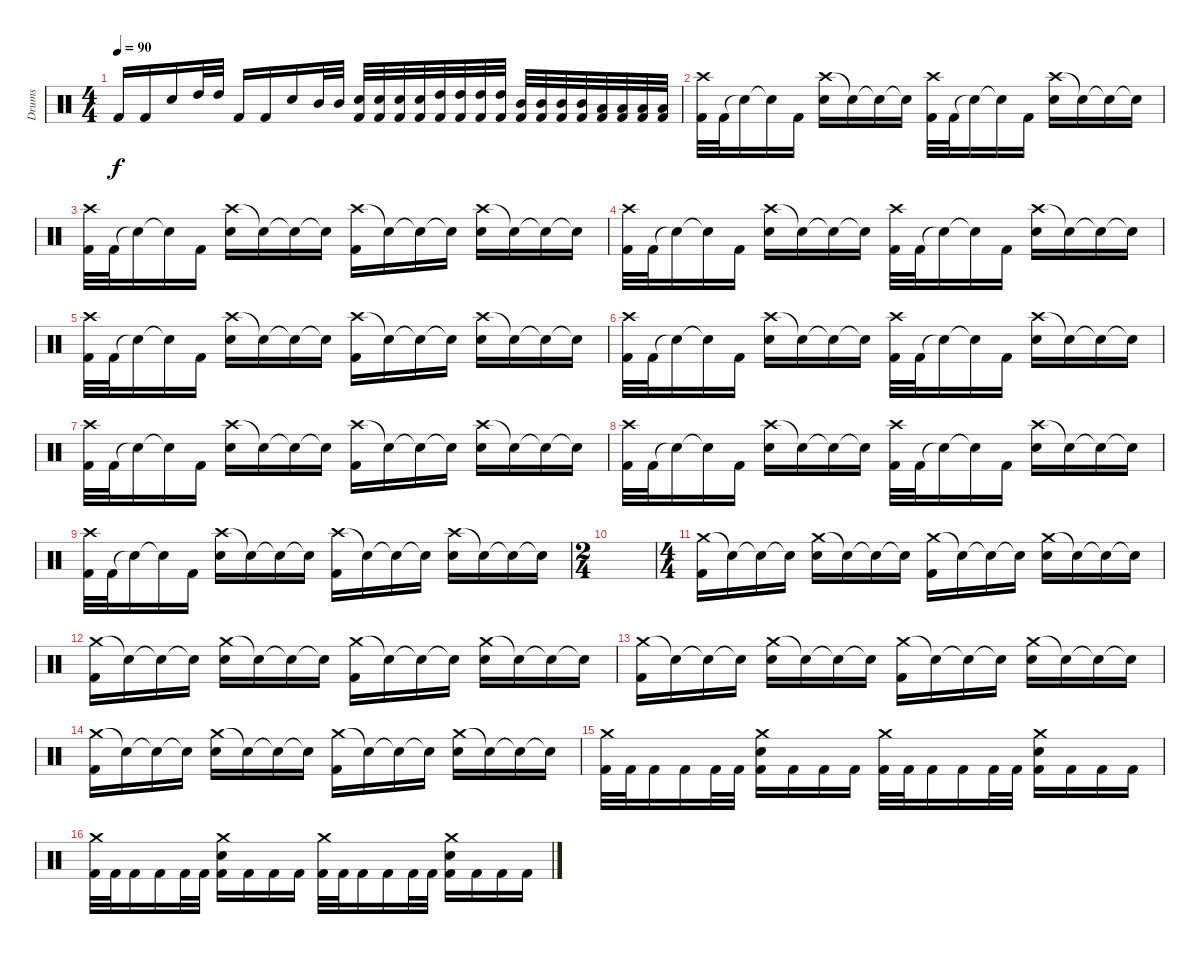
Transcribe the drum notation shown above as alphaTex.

\track ("Drums" "Drums") {instrument percussion}
\staff {score}
\articulation defaults
\ts (4 4)
\tempo 90
\clef neutral
\ks c "Kick (hit) 2".16{dy f} "Kick (hit) 2".16 "Electric Snare (hit)".16 "High Tom (hit)".32 "High Tom (hit)".32 "Kick (hit) 2".16 "Kick (hit) 2".16 "Electric Snare (hit)".16 "Mid Tom (hit)".32 "Mid Tom (hit)".32
("Electric Snare (hit)" "Kick (hit) 2").32 ("Electric Snare (hit)" "Kick (hit) 2").32 ("Electric Snare (hit)" "Kick (hit) 2").32 ("Electric Snare (hit)" "Kick (hit) 2").32 ("High Tom (hit)" "Kick (hit) 2").32 ("High Tom (hit)" "Kick (hit) 2").32 ("High Tom (hit)" "Kick (hit) 2").32 ("High Tom (hit)" "Kick (hit) 2").32 ("Mid Tom (hit)" "Kick (hit) 2").32 ("Mid Tom (hit)" "Kick (hit) 2").32 ("Mid Tom (hit)" "Kick (hit) 2").32 ("Mid Tom (hit)" "Kick (hit) 2").32 ("Low Tom (hit)" "Kick (hit) 2").32 ("Low Tom (hit)" "Kick (hit) 2").32 ("Low Tom (hit)" "Kick (hit) 2").32 ("Low Tom (hit)" "Kick (hit) 2").32 |
("Crash high (hit)" "Kick (hit) 2").32 "Kick (hit) 2".32 "Snare (hit)"{t}.16 "Snare (hit)"{t}.16 "Kick (hit) 2".16 ("Crash high (hit)" "Electric Snare (hit)").16 "Snare (hit)"{t}.16 "Snare (hit)"{t}.16 "Snare (hit)"{t}.16 ("Crash high (hit)" "Kick (hit) 2").32 "Kick (hit) 2".32 "Snare (hit)"{t}.16 "Snare (hit)"{t}.16 "Kick (hit) 2".16 ("Crash high (hit)" "Electric Snare (hit)").16 "Snare (hit)"{t}.16 "Snare (hit)"{t}.16 "Snare (hit)"{t}.16 |
("Crash high (hit)" "Kick (hit) 2").32 "Kick (hit) 2".32 "Snare (hit)"{t}.16 "Snare (hit)"{t}.16 "Kick (hit) 2".16 ("Crash high (hit)" "Electric Snare (hit)").16 "Snare (hit)"{t}.16 "Snare (hit)"{t}.16 "Snare (hit)"{t}.16 ("Crash high (hit)" "Kick (hit) 2").16 "Snare (hit)"{t}.16 "Snare (hit)"{t}.16 "Snare (hit)"{t}.16 ("Crash high (hit)" "Electric Snare (hit)").16 "Snare (hit)"{t}.16 "Snare (hit)"{t}.16 "Snare (hit)"{t}.16 |
("Crash high (hit)" "Kick (hit) 2").32 "Kick (hit) 2".32 "Snare (hit)"{t}.16 "Snare (hit)"{t}.16 "Kick (hit) 2".16 ("Crash high (hit)" "Electric Snare (hit)").16 "Snare (hit)"{t}.16 "Snare (hit)"{t}.16 "Snare (hit)"{t}.16 ("Crash high (hit)" "Kick (hit) 2").32 "Kick (hit) 2".32 "Snare (hit)"{t}.16 "Snare (hit)"{t}.16 "Kick (hit) 2".16 ("Crash high (hit)" "Electric Snare (hit)").16 "Snare (hit)"{t}.16 "Snare (hit)"{t}.16 "Snare (hit)"{t}.16 |
("Crash high (hit)" "Kick (hit) 2").32 "Kick (hit) 2".32 "Snare (hit)"{t}.16 "Snare (hit)"{t}.16 "Kick (hit) 2".16 ("Crash high (hit)" "Electric Snare (hit)").16 "Snare (hit)"{t}.16 "Snare (hit)"{t}.16 "Snare (hit)"{t}.16 ("Crash high (hit)" "Kick (hit) 2").16 "Snare (hit)"{t}.16 "Snare (hit)"{t}.16 "Snare (hit)"{t}.16 ("Crash high (hit)" "Electric Snare (hit)").16 "Snare (hit)"{t}.16 "Snare (hit)"{t}.16 "Snare (hit)"{t}.16 |
("Crash high (hit)" "Kick (hit) 2").32 "Kick (hit) 2".32 "Snare (hit)"{t}.16 "Snare (hit)"{t}.16 "Kick (hit) 2".16 ("Crash high (hit)" "Electric Snare (hit)").16 "Snare (hit)"{t}.16 "Snare (hit)"{t}.16 "Snare (hit)"{t}.16 ("Crash high (hit)" "Kick (hit) 2").32 "Kick (hit) 2".32 "Snare (hit)"{t}.16 "Snare (hit)"{t}.16 "Kick (hit) 2".16 ("Crash high (hit)" "Electric Snare (hit)").16 "Snare (hit)"{t}.16 "Snare (hit)"{t}.16 "Snare (hit)"{t}.16 |
("Crash high (hit)" "Kick (hit) 2").32 "Kick (hit) 2".32 "Snare (hit)"{t}.16 "Snare (hit)"{t}.16 "Kick (hit) 2".16 ("Crash high (hit)" "Electric Snare (hit)").16 "Snare (hit)"{t}.16 "Snare (hit)"{t}.16 "Snare (hit)"{t}.16 ("Crash high (hit)" "Kick (hit) 2").16 "Snare (hit)"{t}.16 "Snare (hit)"{t}.16 "Snare (hit)"{t}.16 ("Crash high (hit)" "Electric Snare (hit)").16 "Snare (hit)"{t}.16 "Snare (hit)"{t}.16 "Snare (hit)"{t}.16 |
("Crash high (hit)" "Kick (hit) 2").32 "Kick (hit) 2".32 "Snare (hit)"{t}.16 "Snare (hit)"{t}.16 "Kick (hit) 2".16 ("Crash high (hit)" "Electric Snare (hit)").16 "Snare (hit)"{t}.16 "Snare (hit)"{t}.16 "Snare (hit)"{t}.16 ("Crash high (hit)" "Kick (hit) 2").32 "Kick (hit) 2".32 "Snare (hit)"{t}.16 "Snare (hit)"{t}.16 "Kick (hit) 2".16 ("Crash high (hit)" "Electric Snare (hit)").16 "Snare (hit)"{t}.16 "Snare (hit)"{t}.16 "Snare (hit)"{t}.16 |
("Crash high (hit)" "Kick (hit) 2").32 "Kick (hit) 2".32 "Snare (hit)"{t}.16 "Snare (hit)"{t}.16 "Kick (hit) 2".16 ("Crash high (hit)" "Electric Snare (hit)").16 "Snare (hit)"{t}.16 "Snare (hit)"{t}.16 "Snare (hit)"{t}.16 ("Crash high (hit)" "Kick (hit) 2").16 "Snare (hit)"{t}.16 "Snare (hit)"{t}.16 "Snare (hit)"{t}.16 ("Crash high (hit)" "Electric Snare (hit)").16 "Snare (hit)"{t}.16 "Snare (hit)"{t}.16 "Snare (hit)"{t}.16 |
\ts (2 4)
|
\ts (4 4)
("Crash medium (hit)" "Kick (hit) 2").16 "Snare (hit)"{t}.16 "Snare (hit)"{t}.16 "Snare (hit)"{t}.16 ("Crash medium (hit)" "Electric Snare (hit)").16 "Snare (hit)"{t}.16 "Snare (hit)"{t}.16 "Snare (hit)"{t}.16 ("Crash medium (hit)" "Kick (hit) 2").16 "Snare (hit)"{t}.16 "Snare (hit)"{t}.16 "Snare (hit)"{t}.16 ("Crash medium (hit)" "Electric Snare (hit)").16 "Snare (hit)"{t}.16 "Snare (hit)"{t}.16 "Snare (hit)"{t}.16 |
("Crash medium (hit)" "Kick (hit) 2").16 "Snare (hit)"{t}.16 "Snare (hit)"{t}.16 "Snare (hit)"{t}.16 ("Crash medium (hit)" "Electric Snare (hit)").16 "Snare (hit)"{t}.16 "Snare (hit)"{t}.16 "Snare (hit)"{t}.16 ("Crash medium (hit)" "Kick (hit) 2").16 "Snare (hit)"{t}.16 "Snare (hit)"{t}.16 "Snare (hit)"{t}.16 ("Crash medium (hit)" "Electric Snare (hit)").16 "Snare (hit)"{t}.16 "Snare (hit)"{t}.16 "Snare (hit)"{t}.16 |
("Crash medium (hit)" "Kick (hit) 2").16 "Snare (hit)"{t}.16 "Snare (hit)"{t}.16 "Snare (hit)"{t}.16 ("Crash medium (hit)" "Electric Snare (hit)").16 "Snare (hit)"{t}.16 "Snare (hit)"{t}.16 "Snare (hit)"{t}.16 ("Crash medium (hit)" "Kick (hit) 2").16 "Snare (hit)"{t}.16 "Snare (hit)"{t}.16 "Snare (hit)"{t}.16 ("Crash medium (hit)" "Electric Snare (hit)").16 "Snare (hit)"{t}.16 "Snare (hit)"{t}.16 "Snare (hit)"{t}.16 |
("Crash medium (hit)" "Kick (hit) 2").16 "Snare (hit)"{t}.16 "Snare (hit)"{t}.16 "Snare (hit)"{t}.16 ("Crash medium (hit)" "Electric Snare (hit)").16 "Snare (hit)"{t}.16 "Snare (hit)"{t}.16 "Snare (hit)"{t}.16 ("Crash medium (hit)" "Kick (hit) 2").16 "Snare (hit)"{t}.16 "Snare (hit)"{t}.16 "Snare (hit)"{t}.16 ("Crash medium (hit)" "Electric Snare (hit)").16 "Snare (hit)"{t}.16 "Snare (hit)"{t}.16 "Snare (hit)"{t}.16 |
("Crash medium (hit)" "Kick (hit) 2").32 "Kick (hit) 2".32 "Kick (hit) 2".16 "Kick (hit) 2".16 "Kick (hit) 2".32 "Kick (hit) 2".32 ("Crash medium (hit)" "Electric Snare (hit)" "Kick (hit) 2").16 "Kick (hit) 2".16 "Kick (hit) 2".16 "Kick (hit) 2".16 ("Crash medium (hit)" "Kick (hit) 2").32 "Kick (hit) 2".32 "Kick (hit) 2".16 "Kick (hit) 2".16 "Kick (hit) 2".32 "Kick (hit) 2".32 ("Crash medium (hit)" "Electric Snare (hit)" "Kick (hit) 2").16 "Kick (hit) 2".16 "Kick (hit) 2".16 "Kick (hit) 2".16 |
("Crash medium (hit)" "Kick (hit) 2").32 "Kick (hit) 2".32 "Kick (hit) 2".16 "Kick (hit) 2".16 "Kick (hit) 2".32 "Kick (hit) 2".32 ("Crash medium (hit)" "Electric Snare (hit)" "Kick (hit) 2").16 "Kick (hit) 2".16 "Kick (hit) 2".16 "Kick (hit) 2".16 ("Crash medium (hit)" "Kick (hit) 2").32 "Kick (hit) 2".32 "Kick (hit) 2".16 "Kick (hit) 2".16 "Kick (hit) 2".32 "Kick (hit) 2".32 ("Crash medium (hit)" "Electric Snare (hit)" "Kick (hit) 2").16 "Kick (hit) 2".16 "Kick (hit) 2".16 "Kick (hit) 2".16
